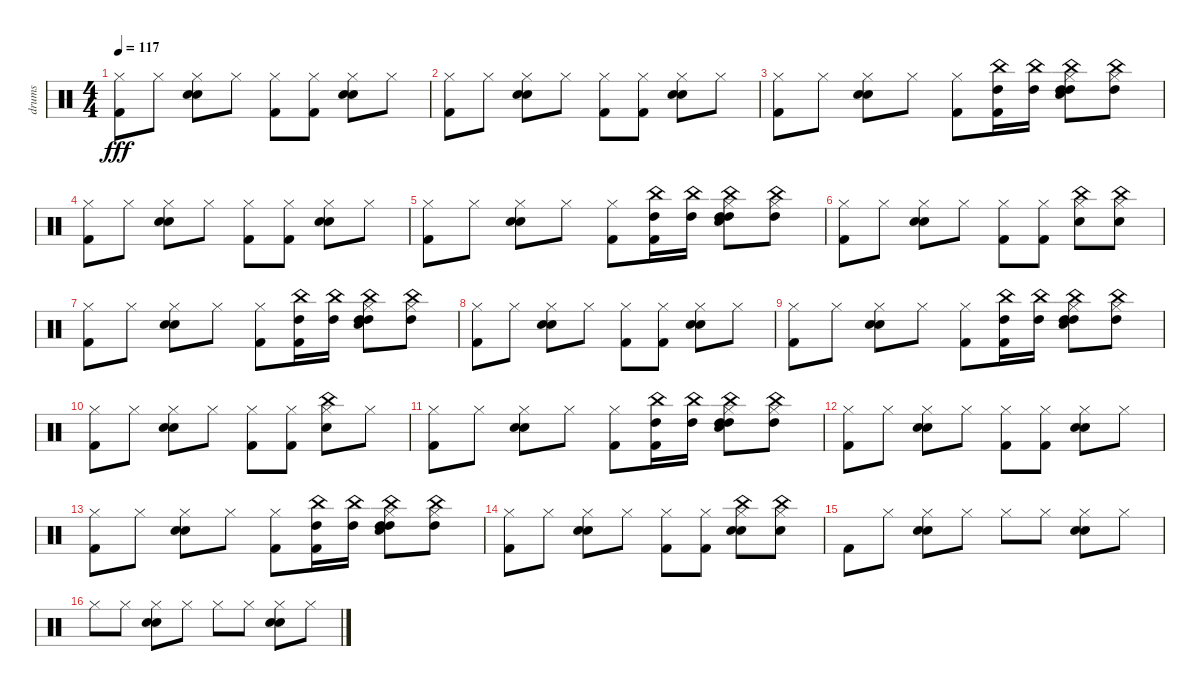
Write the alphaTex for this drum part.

\track ("drums" "drums") {instrument percussion}
\staff {score}
\articulation defaults
\ts (4 4)
\tempo 117
\clef neutral
\ks c
("Kick (hit) 2" "Hi-Hat (closed)").8{dy fff} "Hi-Hat (closed)".8 ("Hi-Hat (closed)" "Electric Snare (hit)" "Electric Snare (hit)").8 "Hi-Hat (closed)".8 ("Kick (hit) 2" "Hi-Hat (closed)").8 ("Kick (hit) 2" "Hi-Hat (closed)").8 ("Hi-Hat (closed)" "Electric Snare (hit)" "Electric Snare (hit)").8 "Hi-Hat (closed)".8 |
("Kick (hit) 2" "Hi-Hat (closed)").8 "Hi-Hat (closed)".8 ("Hi-Hat (closed)" "Electric Snare (hit)" "Electric Snare (hit)").8 "Hi-Hat (closed)".8 ("Kick (hit) 2" "Hi-Hat (closed)").8 ("Kick (hit) 2" "Hi-Hat (closed)").8 ("Hi-Hat (closed)" "Electric Snare (hit)" "Electric Snare (hit)").8 "Hi-Hat (closed)".8 |
("Kick (hit) 2" "Hi-Hat (closed)").8 "Hi-Hat (closed)".8 ("Hi-Hat (closed)" "Electric Snare (hit)" "Electric Snare (hit)").8 "Hi-Hat (closed)".8 ("Kick (hit) 2" "Hi-Hat (closed)").8 ("Kick (hit) 2" "China (hit)" "High Tom (hit)").16 ("China (hit)" "High Tom (hit)").16 ("China (hit)" "High Tom (hit)" "Hi-Hat (closed)" "High Tom (hit)" "Electric Snare (hit)").8 ("China (hit)" "High Tom (hit)" "Hi-Hat (closed)").8 |
("Kick (hit) 2" "Hi-Hat (closed)").8 "Hi-Hat (closed)".8 ("Hi-Hat (closed)" "Electric Snare (hit)" "Electric Snare (hit)").8 "Hi-Hat (closed)".8 ("Kick (hit) 2" "Hi-Hat (closed)").8 ("Kick (hit) 2" "Hi-Hat (closed)").8 ("Hi-Hat (closed)" "Electric Snare (hit)" "Electric Snare (hit)").8 "Hi-Hat (closed)".8 |
("Kick (hit) 2" "Hi-Hat (closed)").8 "Hi-Hat (closed)".8 ("Hi-Hat (closed)" "Electric Snare (hit)" "Electric Snare (hit)").8 "Hi-Hat (closed)".8 ("Kick (hit) 2" "Hi-Hat (closed)").8 ("Kick (hit) 2" "China (hit)" "High Tom (hit)").16 ("China (hit)" "High Tom (hit)").16 ("China (hit)" "High Tom (hit)" "Hi-Hat (closed)" "High Tom (hit)" "Electric Snare (hit)").8 ("China (hit)" "High Tom (hit)" "Hi-Hat (closed)").8 |
("Kick (hit) 2" "Hi-Hat (closed)").8 "Hi-Hat (closed)".8 ("Hi-Hat (closed)" "Electric Snare (hit)" "Electric Snare (hit)").8 "Hi-Hat (closed)".8 ("Kick (hit) 2" "Hi-Hat (closed)").8 ("Kick (hit) 2" "Hi-Hat (closed)").8 ("Hi-Hat (closed)" "China (hit)" "Electric Snare (hit)").8 ("China (hit)" "Electric Snare (hit)" "Hi-Hat (closed)").8 |
("Kick (hit) 2" "Hi-Hat (closed)").8 "Hi-Hat (closed)".8 ("Hi-Hat (closed)" "Electric Snare (hit)" "Electric Snare (hit)").8 "Hi-Hat (closed)".8 ("Kick (hit) 2" "Hi-Hat (closed)").8 ("Kick (hit) 2" "China (hit)" "High Tom (hit)").16 ("China (hit)" "High Tom (hit)").16 ("China (hit)" "High Tom (hit)" "Hi-Hat (closed)" "High Tom (hit)" "Electric Snare (hit)").8 ("China (hit)" "High Tom (hit)" "Hi-Hat (closed)").8 |
("Kick (hit) 2" "Hi-Hat (closed)").8 "Hi-Hat (closed)".8 ("Hi-Hat (closed)" "Electric Snare (hit)" "Electric Snare (hit)").8 "Hi-Hat (closed)".8 ("Kick (hit) 2" "Hi-Hat (closed)").8 ("Kick (hit) 2" "Hi-Hat (closed)").8 ("Hi-Hat (closed)" "Electric Snare (hit)" "Electric Snare (hit)").8 "Hi-Hat (closed)".8 |
("Kick (hit) 2" "Hi-Hat (closed)").8 "Hi-Hat (closed)".8 ("Hi-Hat (closed)" "Electric Snare (hit)" "Electric Snare (hit)").8 "Hi-Hat (closed)".8 ("Kick (hit) 2" "Hi-Hat (closed)").8 ("Kick (hit) 2" "China (hit)" "High Tom (hit)").16 ("China (hit)" "High Tom (hit)").16 ("China (hit)" "High Tom (hit)" "Hi-Hat (closed)" "High Tom (hit)" "Electric Snare (hit)").8 ("China (hit)" "High Tom (hit)" "Hi-Hat (closed)").8 |
("Kick (hit) 2" "Hi-Hat (closed)").8 "Hi-Hat (closed)".8 ("Hi-Hat (closed)" "Electric Snare (hit)" "Electric Snare (hit)").8 "Hi-Hat (closed)".8 ("Kick (hit) 2" "Hi-Hat (closed)").8 ("Kick (hit) 2" "Hi-Hat (closed)").8 ("Hi-Hat (closed)" "China (hit)" "Electric Snare (hit)").8 "Hi-Hat (closed)".8 |
("Kick (hit) 2" "Hi-Hat (closed)").8 "Hi-Hat (closed)".8 ("Hi-Hat (closed)" "Electric Snare (hit)" "Electric Snare (hit)").8 "Hi-Hat (closed)".8 ("Kick (hit) 2" "Hi-Hat (closed)").8 ("Kick (hit) 2" "China (hit)" "High Tom (hit)").16 ("China (hit)" "High Tom (hit)").16 ("China (hit)" "High Tom (hit)" "Hi-Hat (closed)" "High Tom (hit)" "Electric Snare (hit)").8 ("China (hit)" "High Tom (hit)" "Hi-Hat (closed)").8 |
("Kick (hit) 2" "Hi-Hat (closed)").8 "Hi-Hat (closed)".8 ("Hi-Hat (closed)" "Electric Snare (hit)" "Electric Snare (hit)").8 "Hi-Hat (closed)".8 ("Kick (hit) 2" "Hi-Hat (closed)").8 ("Kick (hit) 2" "Hi-Hat (closed)").8 ("Hi-Hat (closed)" "Electric Snare (hit)" "Electric Snare (hit)").8 "Hi-Hat (closed)".8 |
("Kick (hit) 2" "Hi-Hat (closed)").8 "Hi-Hat (closed)".8 ("Hi-Hat (closed)" "Electric Snare (hit)" "Electric Snare (hit)").8 "Hi-Hat (closed)".8 ("Kick (hit) 2" "Hi-Hat (closed)").8 ("Kick (hit) 2" "China (hit)" "High Tom (hit)").16 ("China (hit)" "High Tom (hit)").16 ("China (hit)" "High Tom (hit)" "Hi-Hat (closed)" "High Tom (hit)" "Electric Snare (hit)").8 ("China (hit)" "High Tom (hit)" "Hi-Hat (closed)").8 |
("Kick (hit) 2" "Hi-Hat (closed)").8 "Hi-Hat (closed)".8 ("Hi-Hat (closed)" "Electric Snare (hit)" "Electric Snare (hit)").8 "Hi-Hat (closed)".8 ("Kick (hit) 2" "Hi-Hat (closed)").8 ("Kick (hit) 2" "Hi-Hat (closed)").8 ("Hi-Hat (closed)" "China (hit)" "Electric Snare (hit)" "Electric Snare (hit)").8 ("China (hit)" "Electric Snare (hit)" "Hi-Hat (closed)").8 |
"Kick (hit) 2".8 "Hi-Hat (closed)".8 ("Hi-Hat (closed)" "Electric Snare (hit)" "Electric Snare (hit)").8 "Hi-Hat (closed)".8 "Hi-Hat (closed)".8 "Hi-Hat (closed)".8 ("Hi-Hat (closed)" "Electric Snare (hit)" "Electric Snare (hit)").8 "Hi-Hat (closed)".8 |
"Hi-Hat (closed)".8 "Hi-Hat (closed)".8 ("Hi-Hat (closed)" "Electric Snare (hit)" "Electric Snare (hit)").8 "Hi-Hat (closed)".8 "Hi-Hat (closed)".8 "Hi-Hat (closed)".8 ("Hi-Hat (closed)" "Electric Snare (hit)" "Electric Snare (hit)").8 "Hi-Hat (closed)".8
